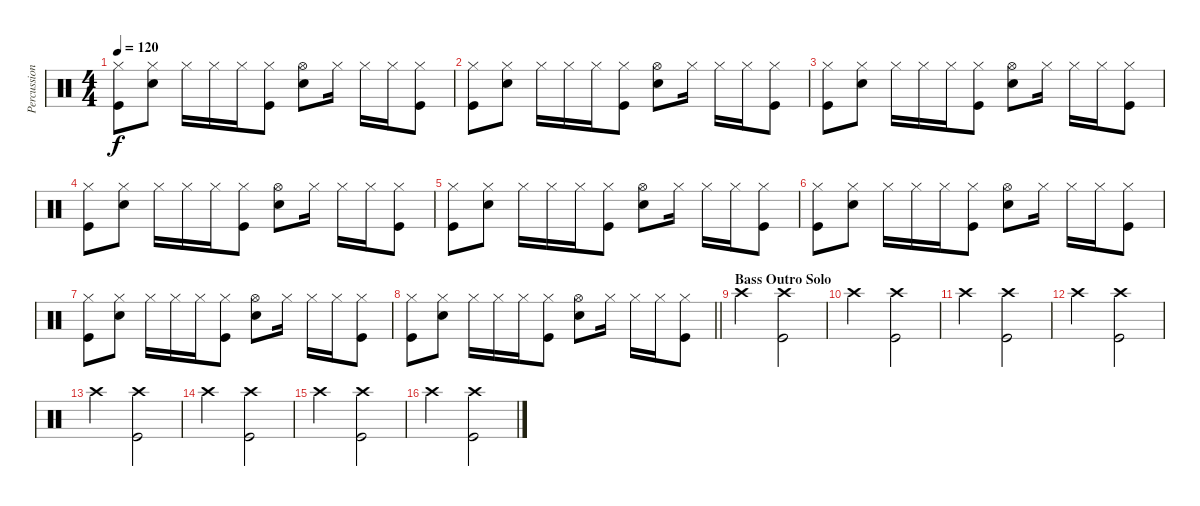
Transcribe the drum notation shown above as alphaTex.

\track ("Percussion" "Percussion") {instrument percussion}
\staff {score}
\articulation defaults
\ts (4 4)
\tempo 120
\clef neutral
\ks c
("Hi-Hat (closed)" "Kick (hit)").8{dy f} ("Hi-Hat (closed)" "Snare (hit) 2").8 "Hi-Hat (closed)".16 "Hi-Hat (closed)".16 "Hi-Hat (closed)".16 ("Hi-Hat (closed)" "Kick (hit)").8 ("Hi-Hat (open)" "Snare (hit) 2").8 "Hi-Hat (closed)".16 "Hi-Hat (closed)".16 "Hi-Hat (closed)".16 ("Hi-Hat (closed)" "Kick (hit)").8 |
("Hi-Hat (closed)" "Kick (hit)").8 ("Hi-Hat (closed)" "Snare (hit) 2").8 "Hi-Hat (closed)".16 "Hi-Hat (closed)".16 "Hi-Hat (closed)".16 ("Hi-Hat (closed)" "Kick (hit)").8 ("Hi-Hat (open)" "Snare (hit) 2").8 "Hi-Hat (closed)".16 "Hi-Hat (closed)".16 "Hi-Hat (closed)".16 ("Hi-Hat (closed)" "Kick (hit)").8 |
("Hi-Hat (closed)" "Kick (hit)").8 ("Hi-Hat (closed)" "Snare (hit) 2").8 "Hi-Hat (closed)".16 "Hi-Hat (closed)".16 "Hi-Hat (closed)".16 ("Hi-Hat (closed)" "Kick (hit)").8 ("Hi-Hat (open)" "Snare (hit) 2").8 "Hi-Hat (closed)".16 "Hi-Hat (closed)".16 "Hi-Hat (closed)".16 ("Hi-Hat (closed)" "Kick (hit)").8 |
("Hi-Hat (closed)" "Kick (hit)").8 ("Hi-Hat (closed)" "Snare (hit) 2").8 "Hi-Hat (closed)".16 "Hi-Hat (closed)".16 "Hi-Hat (closed)".16 ("Hi-Hat (closed)" "Kick (hit)").8 ("Hi-Hat (open)" "Snare (hit) 2").8 "Hi-Hat (closed)".16 "Hi-Hat (closed)".16 "Hi-Hat (closed)".16 ("Hi-Hat (closed)" "Kick (hit)").8 |
("Hi-Hat (closed)" "Kick (hit)").8 ("Hi-Hat (closed)" "Snare (hit) 2").8 "Hi-Hat (closed)".16 "Hi-Hat (closed)".16 "Hi-Hat (closed)".16 ("Hi-Hat (closed)" "Kick (hit)").8 ("Hi-Hat (open)" "Snare (hit) 2").8 "Hi-Hat (closed)".16 "Hi-Hat (closed)".16 "Hi-Hat (closed)".16 ("Hi-Hat (closed)" "Kick (hit)").8 |
("Hi-Hat (closed)" "Kick (hit)").8 ("Hi-Hat (closed)" "Snare (hit) 2").8 "Hi-Hat (closed)".16 "Hi-Hat (closed)".16 "Hi-Hat (closed)".16 ("Hi-Hat (closed)" "Kick (hit)").8 ("Hi-Hat (open)" "Snare (hit) 2").8 "Hi-Hat (closed)".16 "Hi-Hat (closed)".16 "Hi-Hat (closed)".16 ("Hi-Hat (closed)" "Kick (hit)").8 |
("Hi-Hat (closed)" "Kick (hit)").8 ("Hi-Hat (closed)" "Snare (hit) 2").8 "Hi-Hat (closed)".16 "Hi-Hat (closed)".16 "Hi-Hat (closed)".16 ("Hi-Hat (closed)" "Kick (hit)").8 ("Hi-Hat (open)" "Snare (hit) 2").8 "Hi-Hat (closed)".16 "Hi-Hat (closed)".16 "Hi-Hat (closed)".16 ("Hi-Hat (closed)" "Kick (hit)").8 |
\barLineRight lightlight
("Hi-Hat (closed)" "Kick (hit)").8 ("Hi-Hat (closed)" "Snare (hit) 2").8 "Hi-Hat (closed)".16 "Hi-Hat (closed)".16 "Hi-Hat (closed)".16 ("Hi-Hat (closed)" "Kick (hit)").8 ("Hi-Hat (open)" "Snare (hit) 2").8 "Hi-Hat (closed)".16 "Hi-Hat (closed)".16 "Hi-Hat (closed)".16 ("Hi-Hat (closed)" "Kick (hit)").8 |
\section ("" "Bass Outro Solo")
"Crash high (hit)".2 ("Crash high (hit)" "Kick (hit)").2 |
"Crash high (hit)".2 ("Crash high (hit)" "Kick (hit)").2 |
"Crash high (hit)".2 ("Crash high (hit)" "Kick (hit)").2 |
"Crash high (hit)".2 ("Crash high (hit)" "Kick (hit)").2 |
"Crash high (hit)".2 ("Crash high (hit)" "Kick (hit)").2 |
"Crash high (hit)".2 ("Crash high (hit)" "Kick (hit)").2 |
"Crash high (hit)".2 ("Crash high (hit)" "Kick (hit)").2 |
"Crash high (hit)".2 ("Crash high (hit)" "Kick (hit)").2
